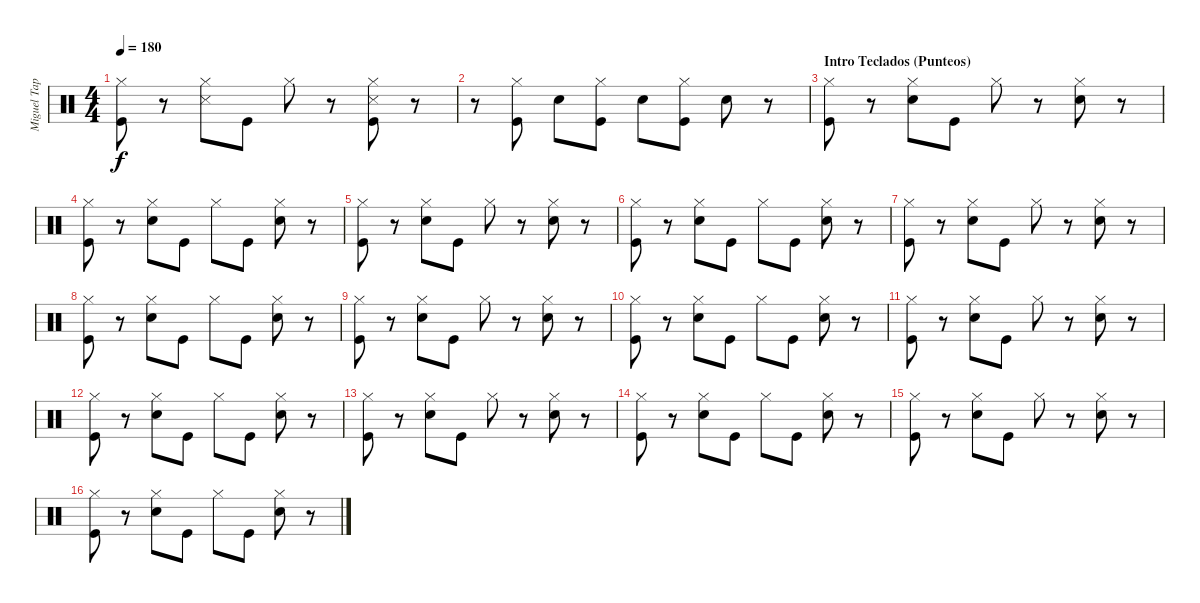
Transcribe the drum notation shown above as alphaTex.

\track ("Miguel Tapia (Batería)" "Miguel Tap") {instrument percussion}
\staff {score}
\articulation defaults
\ts (4 4)
\tempo 180
\clef neutral
\ks c
("Hi-Hat (closed)" "Kick (hit)").8{dy f} r.8 ("Hi-Hat (closed)" "Snare (side stick) 3").8 "Kick (hit)".8 "Hi-Hat (closed)".8 r.8 ("Hi-Hat (closed)" "Snare (side stick) 3" "Kick (hit)").8 r.8 |
r.8 ("Hi-Hat (closed)" "Kick (hit)").8 "Snare (hit) 2".8 ("Hi-Hat (closed)" "Kick (hit)").8 "Snare (hit) 2".8 ("Hi-Hat (closed)" "Kick (hit)").8 "Snare (hit) 2".8 r.8 |
\section ("" "Intro Teclados (Punteos)")
("Hi-Hat (closed)" "Kick (hit)").8 r.8 ("Hi-Hat (closed)" "Snare (hit) 2").8 "Kick (hit)".8 "Hi-Hat (closed)".8 r.8 ("Hi-Hat (closed)" "Snare (hit) 2").8 r.8 |
("Hi-Hat (closed)" "Kick (hit)").8 r.8 ("Hi-Hat (closed)" "Snare (hit) 2").8 "Kick (hit)".8 "Hi-Hat (closed)".8 "Kick (hit)".8 ("Hi-Hat (closed)" "Snare (hit) 2").8 r.8 |
("Hi-Hat (closed)" "Kick (hit)").8 r.8 ("Hi-Hat (closed)" "Snare (hit) 2").8 "Kick (hit)".8 "Hi-Hat (closed)".8 r.8 ("Hi-Hat (closed)" "Snare (hit) 2").8 r.8 |
("Hi-Hat (closed)" "Kick (hit)").8 r.8 ("Hi-Hat (closed)" "Snare (hit) 2").8 "Kick (hit)".8 "Hi-Hat (closed)".8 "Kick (hit)".8 ("Hi-Hat (closed)" "Snare (hit) 2").8 r.8 |
("Hi-Hat (closed)" "Kick (hit)").8 r.8 ("Hi-Hat (closed)" "Snare (hit) 2").8 "Kick (hit)".8 "Hi-Hat (closed)".8 r.8 ("Hi-Hat (closed)" "Snare (hit) 2").8 r.8 |
("Hi-Hat (closed)" "Kick (hit)").8 r.8 ("Hi-Hat (closed)" "Snare (hit) 2").8 "Kick (hit)".8 "Hi-Hat (closed)".8 "Kick (hit)".8 ("Hi-Hat (closed)" "Snare (hit) 2").8 r.8 |
("Hi-Hat (closed)" "Kick (hit)").8 r.8 ("Hi-Hat (closed)" "Snare (hit) 2").8 "Kick (hit)".8 "Hi-Hat (closed)".8 r.8 ("Hi-Hat (closed)" "Snare (hit) 2").8 r.8 |
("Hi-Hat (closed)" "Kick (hit)").8 r.8 ("Hi-Hat (closed)" "Snare (hit) 2").8 "Kick (hit)".8 "Hi-Hat (closed)".8 "Kick (hit)".8 ("Hi-Hat (closed)" "Snare (hit) 2").8 r.8 |
("Hi-Hat (closed)" "Kick (hit)").8 r.8 ("Hi-Hat (closed)" "Snare (hit) 2").8 "Kick (hit)".8 "Hi-Hat (closed)".8 r.8 ("Hi-Hat (closed)" "Snare (hit) 2").8 r.8 |
("Hi-Hat (closed)" "Kick (hit)").8 r.8 ("Hi-Hat (closed)" "Snare (hit) 2").8 "Kick (hit)".8 "Hi-Hat (closed)".8 "Kick (hit)".8 ("Hi-Hat (closed)" "Snare (hit) 2").8 r.8 |
("Hi-Hat (closed)" "Kick (hit)").8 r.8 ("Hi-Hat (closed)" "Snare (hit) 2").8 "Kick (hit)".8 "Hi-Hat (closed)".8 r.8 ("Hi-Hat (closed)" "Snare (hit) 2").8 r.8 |
("Hi-Hat (closed)" "Kick (hit)").8 r.8 ("Hi-Hat (closed)" "Snare (hit) 2").8 "Kick (hit)".8 "Hi-Hat (closed)".8 "Kick (hit)".8 ("Hi-Hat (closed)" "Snare (hit) 2").8 r.8 |
("Hi-Hat (closed)" "Kick (hit)").8 r.8 ("Hi-Hat (closed)" "Snare (hit) 2").8 "Kick (hit)".8 "Hi-Hat (closed)".8 r.8 ("Hi-Hat (closed)" "Snare (hit) 2").8 r.8 |
("Hi-Hat (closed)" "Kick (hit)").8 r.8 ("Hi-Hat (closed)" "Snare (hit) 2").8 "Kick (hit)".8 "Hi-Hat (closed)".8 "Kick (hit)".8 ("Hi-Hat (closed)" "Snare (hit) 2").8 r.8
